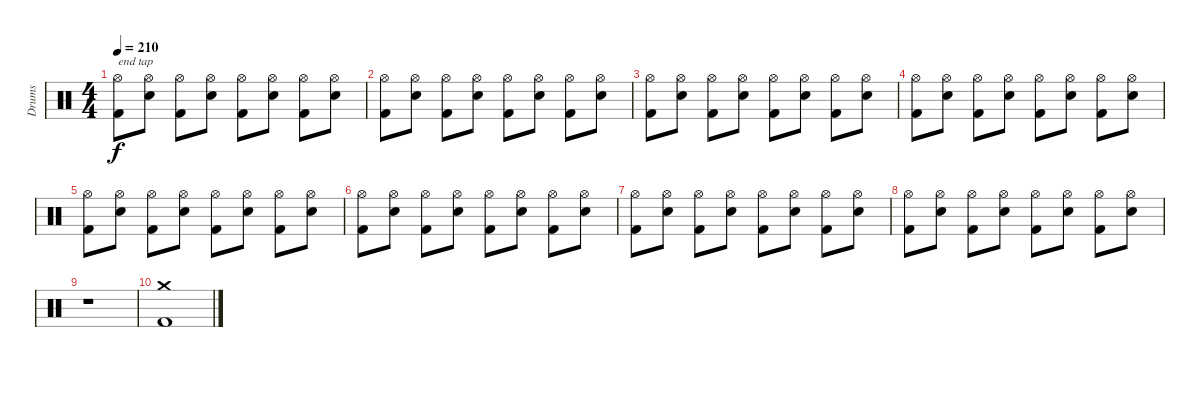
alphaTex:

\track ("Drums" "Drums") {instrument percussion}
\staff {score}
\articulation defaults
\ts (4 4)
\tempo 210
\clef neutral
\ks c
("Kick (hit) 2" "Hi-Hat (open)").8{txt "end tap" dy f} ("Snare (hit) 2" "Hi-Hat (open)").8 ("Kick (hit) 2" "Hi-Hat (open)").8 ("Snare (hit) 2" "Hi-Hat (open)").8 ("Kick (hit) 2" "Hi-Hat (open)").8 ("Snare (hit) 2" "Hi-Hat (open)").8 ("Kick (hit) 2" "Hi-Hat (open)").8 ("Snare (hit) 2" "Hi-Hat (open)").8 |
("Kick (hit) 2" "Hi-Hat (open)").8 ("Snare (hit) 2" "Hi-Hat (open)").8 ("Kick (hit) 2" "Hi-Hat (open)").8 ("Snare (hit) 2" "Hi-Hat (open)").8 ("Kick (hit) 2" "Hi-Hat (open)").8 ("Snare (hit) 2" "Hi-Hat (open)").8 ("Kick (hit) 2" "Hi-Hat (open)").8 ("Snare (hit) 2" "Hi-Hat (open)").8 |
("Kick (hit) 2" "Hi-Hat (open)").8 ("Snare (hit) 2" "Hi-Hat (open)").8 ("Kick (hit) 2" "Hi-Hat (open)").8 ("Snare (hit) 2" "Hi-Hat (open)").8 ("Kick (hit) 2" "Hi-Hat (open)").8 ("Snare (hit) 2" "Hi-Hat (open)").8 ("Kick (hit) 2" "Hi-Hat (open)").8 ("Snare (hit) 2" "Hi-Hat (open)").8 |
("Kick (hit) 2" "Hi-Hat (open)").8 ("Snare (hit) 2" "Hi-Hat (open)").8 ("Kick (hit) 2" "Hi-Hat (open)").8 ("Snare (hit) 2" "Hi-Hat (open)").8 ("Kick (hit) 2" "Hi-Hat (open)").8 ("Snare (hit) 2" "Hi-Hat (open)").8 ("Kick (hit) 2" "Hi-Hat (open)").8 ("Snare (hit) 2" "Hi-Hat (open)").8 |
("Kick (hit) 2" "Hi-Hat (open)").8 ("Snare (hit) 2" "Hi-Hat (open)").8 ("Kick (hit) 2" "Hi-Hat (open)").8 ("Snare (hit) 2" "Hi-Hat (open)").8 ("Kick (hit) 2" "Hi-Hat (open)").8 ("Snare (hit) 2" "Hi-Hat (open)").8 ("Kick (hit) 2" "Hi-Hat (open)").8 ("Snare (hit) 2" "Hi-Hat (open)").8 |
("Kick (hit) 2" "Hi-Hat (open)").8 ("Snare (hit) 2" "Hi-Hat (open)").8 ("Kick (hit) 2" "Hi-Hat (open)").8 ("Snare (hit) 2" "Hi-Hat (open)").8 ("Kick (hit) 2" "Hi-Hat (open)").8 ("Snare (hit) 2" "Hi-Hat (open)").8 ("Kick (hit) 2" "Hi-Hat (open)").8 ("Snare (hit) 2" "Hi-Hat (open)").8 |
("Kick (hit) 2" "Hi-Hat (open)").8 ("Snare (hit) 2" "Hi-Hat (open)").8 ("Kick (hit) 2" "Hi-Hat (open)").8 ("Snare (hit) 2" "Hi-Hat (open)").8 ("Kick (hit) 2" "Hi-Hat (open)").8 ("Snare (hit) 2" "Hi-Hat (open)").8 ("Kick (hit) 2" "Hi-Hat (open)").8 ("Snare (hit) 2" "Hi-Hat (open)").8 |
("Kick (hit) 2" "Hi-Hat (open)").8 ("Snare (hit) 2" "Hi-Hat (open)").8 ("Kick (hit) 2" "Hi-Hat (open)").8 ("Snare (hit) 2" "Hi-Hat (open)").8 ("Kick (hit) 2" "Hi-Hat (open)").8 ("Snare (hit) 2" "Hi-Hat (open)").8 ("Kick (hit) 2" "Hi-Hat (open)").8 ("Snare (hit) 2" "Hi-Hat (open)").8 |
r.1 |
("Kick (hit) 2" "Crash medium (hit)").1
